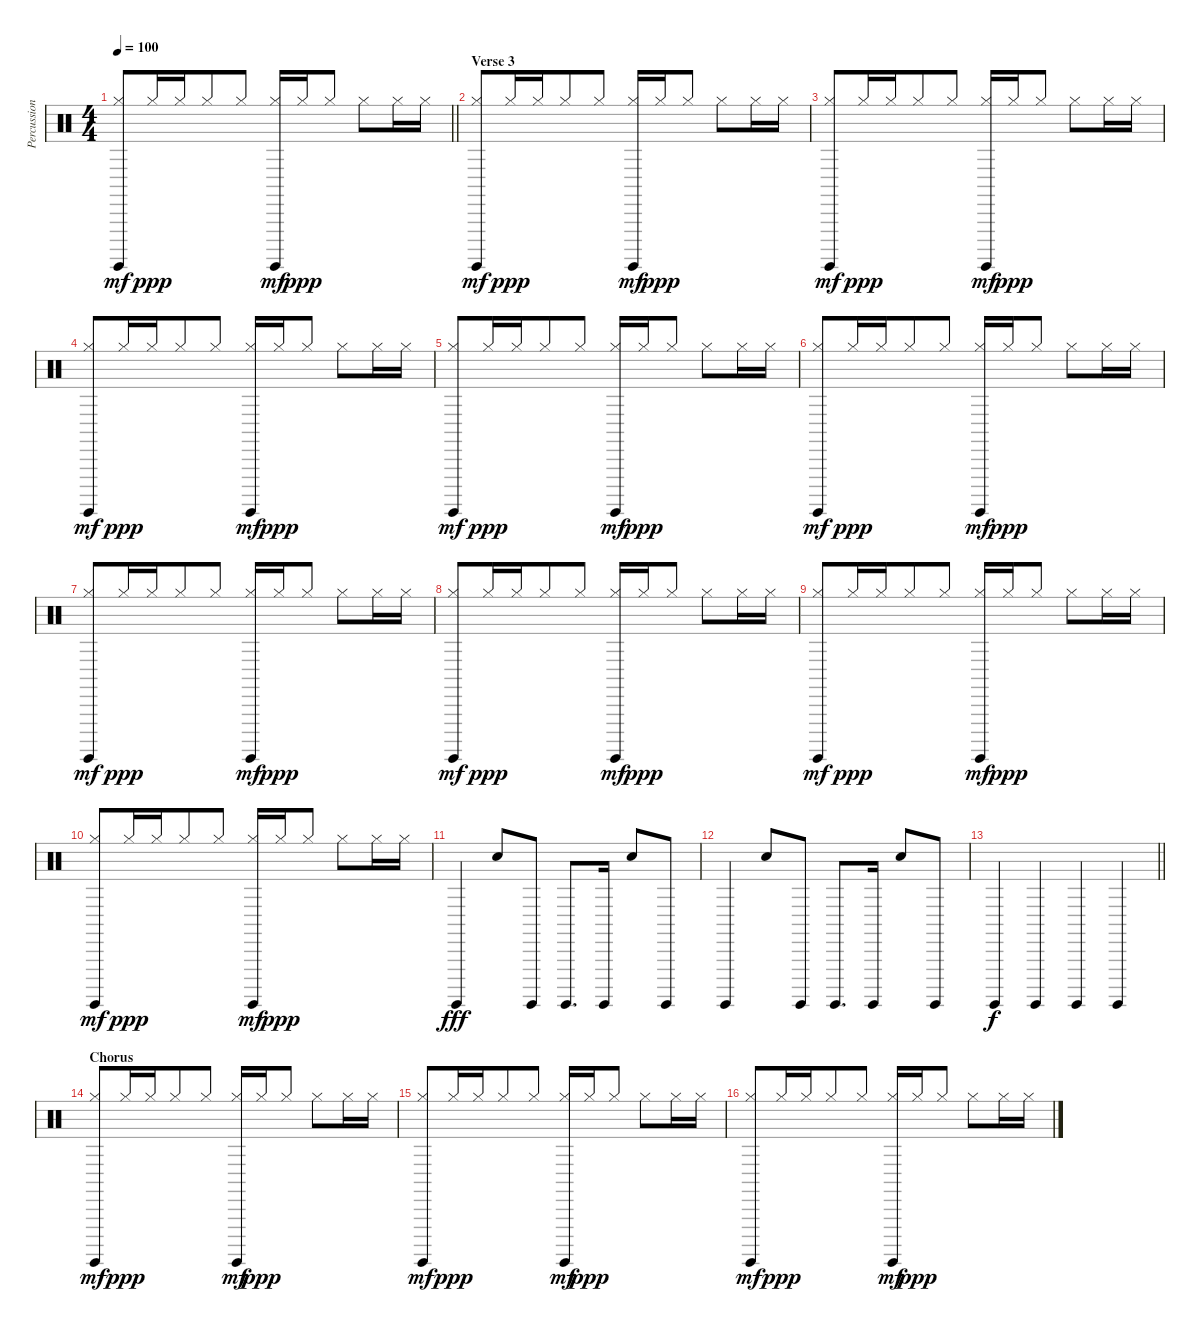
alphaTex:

\track ("Percussion" "Percussion") {instrument percussion}
\staff {score}
\articulation defaults
\ts (4 4)
\tempo 100
\clef neutral
\barLineRight lightlight
\ks c
("Hi-Hat (closed)" "Surdo (hit)").8{dy mf} "Hi-Hat (closed)".16{dy ppp} "Hi-Hat (closed)".16{beam merge} "Hi-Hat (closed)".8 "Hi-Hat (closed)".8 ("Hi-Hat (closed)" "Surdo (hit)").16{dy mf} "Hi-Hat (closed)".16{dy ppp beam merge} "Hi-Hat (closed)".8 "Hi-Hat (closed)".8 "Hi-Hat (closed)".16 "Hi-Hat (closed)".16 |
\section ("" "Verse 3")
("Hi-Hat (closed)" "Surdo (hit)").8{dy mf} "Hi-Hat (closed)".16{dy ppp} "Hi-Hat (closed)".16{beam merge} "Hi-Hat (closed)".8 "Hi-Hat (closed)".8 ("Hi-Hat (closed)" "Surdo (hit)").16{dy mf} "Hi-Hat (closed)".16{dy ppp beam merge} "Hi-Hat (closed)".8 "Hi-Hat (closed)".8 "Hi-Hat (closed)".16 "Hi-Hat (closed)".16 |
("Hi-Hat (closed)" "Surdo (hit)").8{dy mf} "Hi-Hat (closed)".16{dy ppp} "Hi-Hat (closed)".16{beam merge} "Hi-Hat (closed)".8 "Hi-Hat (closed)".8 ("Hi-Hat (closed)" "Surdo (hit)").16{dy mf} "Hi-Hat (closed)".16{dy ppp beam merge} "Hi-Hat (closed)".8 "Hi-Hat (closed)".8 "Hi-Hat (closed)".16 "Hi-Hat (closed)".16 |
("Hi-Hat (closed)" "Surdo (hit)").8{dy mf} "Hi-Hat (closed)".16{dy ppp} "Hi-Hat (closed)".16{beam merge} "Hi-Hat (closed)".8 "Hi-Hat (closed)".8 ("Hi-Hat (closed)" "Surdo (hit)").16{dy mf} "Hi-Hat (closed)".16{dy ppp beam merge} "Hi-Hat (closed)".8 "Hi-Hat (closed)".8 "Hi-Hat (closed)".16 "Hi-Hat (closed)".16 |
("Hi-Hat (closed)" "Surdo (hit)").8{dy mf} "Hi-Hat (closed)".16{dy ppp} "Hi-Hat (closed)".16{beam merge} "Hi-Hat (closed)".8 "Hi-Hat (closed)".8 ("Hi-Hat (closed)" "Surdo (hit)").16{dy mf} "Hi-Hat (closed)".16{dy ppp beam merge} "Hi-Hat (closed)".8 "Hi-Hat (closed)".8 "Hi-Hat (closed)".16 "Hi-Hat (closed)".16 |
("Hi-Hat (closed)" "Surdo (hit)").8{dy mf} "Hi-Hat (closed)".16{dy ppp} "Hi-Hat (closed)".16{beam merge} "Hi-Hat (closed)".8 "Hi-Hat (closed)".8 ("Hi-Hat (closed)" "Surdo (hit)").16{dy mf} "Hi-Hat (closed)".16{dy ppp beam merge} "Hi-Hat (closed)".8 "Hi-Hat (closed)".8 "Hi-Hat (closed)".16 "Hi-Hat (closed)".16 |
("Hi-Hat (closed)" "Surdo (hit)").8{dy mf} "Hi-Hat (closed)".16{dy ppp} "Hi-Hat (closed)".16{beam merge} "Hi-Hat (closed)".8 "Hi-Hat (closed)".8 ("Hi-Hat (closed)" "Surdo (hit)").16{dy mf} "Hi-Hat (closed)".16{dy ppp beam merge} "Hi-Hat (closed)".8 "Hi-Hat (closed)".8 "Hi-Hat (closed)".16 "Hi-Hat (closed)".16 |
("Hi-Hat (closed)" "Surdo (hit)").8{dy mf} "Hi-Hat (closed)".16{dy ppp} "Hi-Hat (closed)".16{beam merge} "Hi-Hat (closed)".8 "Hi-Hat (closed)".8 ("Hi-Hat (closed)" "Surdo (hit)").16{dy mf} "Hi-Hat (closed)".16{dy ppp beam merge} "Hi-Hat (closed)".8 "Hi-Hat (closed)".8 "Hi-Hat (closed)".16 "Hi-Hat (closed)".16 |
("Hi-Hat (closed)" "Surdo (hit)").8{dy mf} "Hi-Hat (closed)".16{dy ppp} "Hi-Hat (closed)".16{beam merge} "Hi-Hat (closed)".8 "Hi-Hat (closed)".8 ("Hi-Hat (closed)" "Surdo (hit)").16{dy mf} "Hi-Hat (closed)".16{dy ppp beam merge} "Hi-Hat (closed)".8 "Hi-Hat (closed)".8 "Hi-Hat (closed)".16 "Hi-Hat (closed)".16 |
("Hi-Hat (closed)" "Surdo (hit)").8{dy mf} "Hi-Hat (closed)".16{dy ppp} "Hi-Hat (closed)".16{beam merge} "Hi-Hat (closed)".8 "Hi-Hat (closed)".8 ("Hi-Hat (closed)" "Surdo (hit)").16{dy mf} "Hi-Hat (closed)".16{dy ppp beam merge} "Hi-Hat (closed)".8 "Hi-Hat (closed)".8 "Hi-Hat (closed)".16 "Hi-Hat (closed)".16 |
"Surdo (hit)".4{dy fff} "Snare (hit) 2".8 "Surdo (hit)".8 "Surdo (hit)".8{d} "Surdo (hit)".16 "Snare (hit) 2".8 "Surdo (hit)".8 |
"Surdo (hit)".4 "Snare (hit) 2".8 "Surdo (hit)".8 "Surdo (hit)".8{d} "Surdo (hit)".16 "Snare (hit) 2".8 "Surdo (hit)".8 |
\barLineRight lightlight "Surdo (hit)".4{dy f} "Surdo (hit)".4 "Surdo (hit)".4 "Surdo (hit)".4
|
\section ("" "Chorus")
("Hi-Hat (closed)" "Surdo (hit)").8{dy mf} "Hi-Hat (closed)".16{dy ppp} "Hi-Hat (closed)".16{beam merge} "Hi-Hat (closed)".8 "Hi-Hat (closed)".8 ("Hi-Hat (closed)" "Surdo (hit)").16{dy mf} "Hi-Hat (closed)".16{dy ppp beam merge} "Hi-Hat (closed)".8 "Hi-Hat (closed)".8 "Hi-Hat (closed)".16 "Hi-Hat (closed)".16 |
("Hi-Hat (closed)" "Surdo (hit)").8{dy mf} "Hi-Hat (closed)".16{dy ppp} "Hi-Hat (closed)".16{beam merge} "Hi-Hat (closed)".8 "Hi-Hat (closed)".8 ("Hi-Hat (closed)" "Surdo (hit)").16{dy mf} "Hi-Hat (closed)".16{dy ppp beam merge} "Hi-Hat (closed)".8 "Hi-Hat (closed)".8 "Hi-Hat (closed)".16 "Hi-Hat (closed)".16 |
("Hi-Hat (closed)" "Surdo (hit)").8{dy mf} "Hi-Hat (closed)".16{dy ppp} "Hi-Hat (closed)".16{beam merge} "Hi-Hat (closed)".8 "Hi-Hat (closed)".8 ("Hi-Hat (closed)" "Surdo (hit)").16{dy mf} "Hi-Hat (closed)".16{dy ppp beam merge} "Hi-Hat (closed)".8 "Hi-Hat (closed)".8 "Hi-Hat (closed)".16 "Hi-Hat (closed)".16
